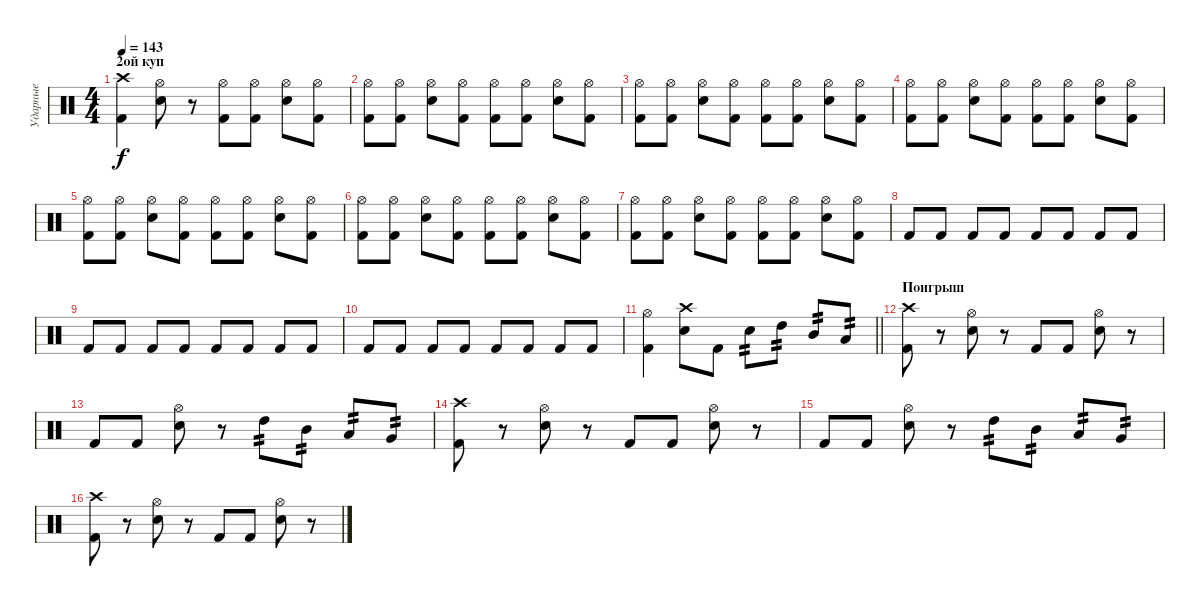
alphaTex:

\track ("Ударные" "Ударные") {instrument percussion}
\staff {score}
\articulation defaults
\ts (4 4)
\section ("" "2ой куп")
\tempo 143
\clef neutral
\ks c
("Crash high (hit)" "Kick (hit) 2").4{dy f} ("Hi-Hat (open)" "Electric Snare (hit)").8 r.8 ("Hi-Hat (open)" "Kick (hit) 2").8 ("Hi-Hat (open)" "Kick (hit) 2").8 ("Hi-Hat (open)" "Electric Snare (hit)").8 ("Hi-Hat (open)" "Kick (hit) 2").8 |
("Hi-Hat (open)" "Kick (hit) 2").8 ("Hi-Hat (open)" "Kick (hit) 2").8 ("Hi-Hat (open)" "Electric Snare (hit)").8 ("Hi-Hat (open)" "Kick (hit) 2").8 ("Hi-Hat (open)" "Kick (hit) 2").8 ("Hi-Hat (open)" "Kick (hit) 2").8 ("Hi-Hat (open)" "Electric Snare (hit)").8 ("Hi-Hat (open)" "Kick (hit) 2").8 |
("Hi-Hat (open)" "Kick (hit) 2").8 ("Hi-Hat (open)" "Kick (hit) 2").8 ("Hi-Hat (open)" "Electric Snare (hit)").8 ("Hi-Hat (open)" "Kick (hit) 2").8 ("Hi-Hat (open)" "Kick (hit) 2").8 ("Hi-Hat (open)" "Kick (hit) 2").8 ("Hi-Hat (open)" "Electric Snare (hit)").8 ("Hi-Hat (open)" "Kick (hit) 2").8 |
("Hi-Hat (open)" "Kick (hit) 2").8 ("Hi-Hat (open)" "Kick (hit) 2").8 ("Hi-Hat (open)" "Electric Snare (hit)").8 ("Hi-Hat (open)" "Kick (hit) 2").8 ("Hi-Hat (open)" "Kick (hit) 2").8 ("Hi-Hat (open)" "Kick (hit) 2").8 ("Hi-Hat (open)" "Electric Snare (hit)").8 ("Hi-Hat (open)" "Kick (hit) 2").8 |
("Hi-Hat (open)" "Kick (hit) 2").8 ("Hi-Hat (open)" "Kick (hit) 2").8 ("Hi-Hat (open)" "Electric Snare (hit)").8 ("Hi-Hat (open)" "Kick (hit) 2").8 ("Hi-Hat (open)" "Kick (hit) 2").8 ("Hi-Hat (open)" "Kick (hit) 2").8 ("Hi-Hat (open)" "Electric Snare (hit)").8 ("Hi-Hat (open)" "Kick (hit) 2").8 |
("Hi-Hat (open)" "Kick (hit) 2").8 ("Hi-Hat (open)" "Kick (hit) 2").8 ("Hi-Hat (open)" "Electric Snare (hit)").8 ("Hi-Hat (open)" "Kick (hit) 2").8 ("Hi-Hat (open)" "Kick (hit) 2").8 ("Hi-Hat (open)" "Kick (hit) 2").8 ("Hi-Hat (open)" "Electric Snare (hit)").8 ("Hi-Hat (open)" "Kick (hit) 2").8 |
("Hi-Hat (open)" "Kick (hit) 2").8 ("Hi-Hat (open)" "Kick (hit) 2").8 ("Hi-Hat (open)" "Electric Snare (hit)").8 ("Hi-Hat (open)" "Kick (hit) 2").8 ("Hi-Hat (open)" "Kick (hit) 2").8 ("Hi-Hat (open)" "Kick (hit) 2").8 ("Hi-Hat (open)" "Electric Snare (hit)").8 ("Hi-Hat (open)" "Kick (hit) 2").8 |
"Kick (hit) 2".8 "Kick (hit) 2".8 "Kick (hit) 2".8 "Kick (hit) 2".8 "Kick (hit) 2".8 "Kick (hit) 2".8 "Kick (hit) 2".8 "Kick (hit) 2".8 |
"Kick (hit) 2".8 "Kick (hit) 2".8 "Kick (hit) 2".8 "Kick (hit) 2".8 "Kick (hit) 2".8 "Kick (hit) 2".8 "Kick (hit) 2".8 "Kick (hit) 2".8 |
"Kick (hit) 2".8 "Kick (hit) 2".8 "Kick (hit) 2".8 "Kick (hit) 2".8 "Kick (hit) 2".8 "Kick (hit) 2".8 "Kick (hit) 2".8 "Kick (hit) 2".8 |
\barLineRight lightlight
("Hi-Hat (open)" "Kick (hit) 2").4 ("Crash high (hit)" "Electric Snare (hit)").8 "Kick (hit) 2".8 "Electric Snare (hit)".8{tp 2} "High Tom (hit)".8{tp 2} "Mid Tom (hit)".8{tp 2} "Low Tom (hit)".8{tp 2} |
\section ("" "Поигрыш")
("Crash high (hit)" "Kick (hit) 2").8 r.8 ("Hi-Hat (open)" "Electric Snare (hit)").8 r.8 "Kick (hit) 2".8 "Kick (hit) 2".8 ("Hi-Hat (open)" "Electric Snare (hit)").8 r.8 |
"Kick (hit) 2".8 "Kick (hit) 2".8 ("Hi-Hat (open)" "Electric Snare (hit)").8 r.8 "High Tom (hit)".8{tp 2} "Mid Tom (hit)".8{tp 2} "Low Tom (hit)".8{tp 2} "Very Low Tom (hit)".8{tp 2} |
("Crash high (hit)" "Kick (hit) 2").8 r.8 ("Hi-Hat (open)" "Electric Snare (hit)").8 r.8 "Kick (hit) 2".8 "Kick (hit) 2".8 ("Hi-Hat (open)" "Electric Snare (hit)").8 r.8 |
"Kick (hit) 2".8 "Kick (hit) 2".8 ("Hi-Hat (open)" "Electric Snare (hit)").8 r.8 "High Tom (hit)".8{tp 2} "Mid Tom (hit)".8{tp 2} "Low Tom (hit)".8{tp 2} "Very Low Tom (hit)".8{tp 2} |
("Crash high (hit)" "Kick (hit) 2").8 r.8 ("Hi-Hat (open)" "Electric Snare (hit)").8 r.8 "Kick (hit) 2".8 "Kick (hit) 2".8 ("Hi-Hat (open)" "Electric Snare (hit)").8 r.8
